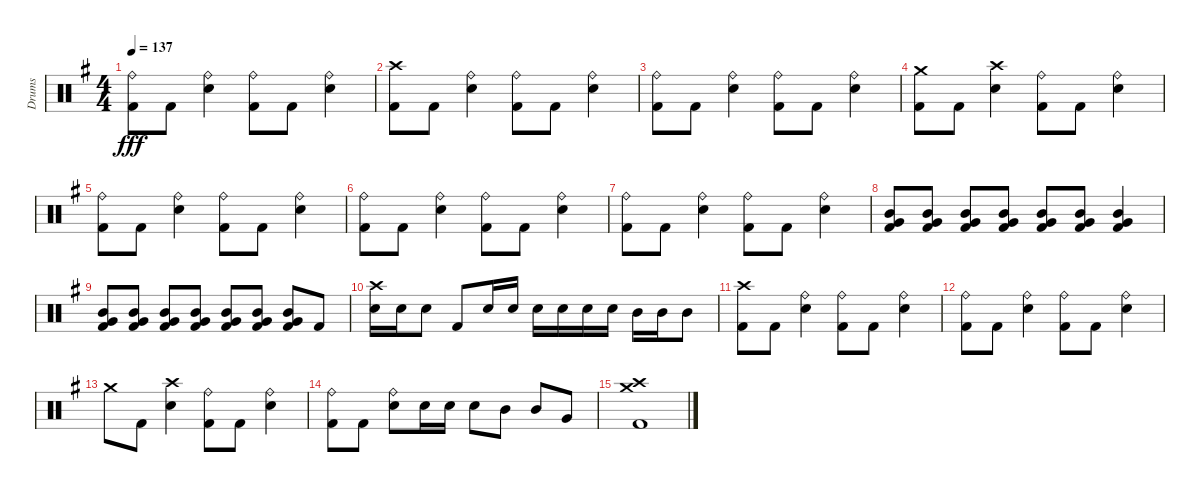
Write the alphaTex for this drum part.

\track ("Drums" "Drums") {instrument percussion}
\staff {score}
\articulation defaults
\ts (4 4)
\tempo 137
\clef neutral
\ks g
("Ride (bell)" "Kick (hit) 2").8{dy fff} "Kick (hit) 2".8 ("Ride (bell)" "Electric Snare (hit)").4 ("Ride (bell)" "Kick (hit) 2").8 "Kick (hit) 2".8 ("Ride (bell)" "Electric Snare (hit)").4 |
("Crash high (hit)" "Kick (hit) 2").8 "Kick (hit) 2".8 ("Ride (bell)" "Electric Snare (hit)").4 ("Ride (bell)" "Kick (hit) 2").8 "Kick (hit) 2".8 ("Ride (bell)" "Electric Snare (hit)").4 |
("Ride (bell)" "Kick (hit) 2").8 "Kick (hit) 2".8 ("Ride (bell)" "Electric Snare (hit)").4 ("Ride (bell)" "Kick (hit) 2").8 "Kick (hit) 2".8 ("Ride (bell)" "Electric Snare (hit)").4 |
("Crash medium (hit)" "Kick (hit) 2").8 "Kick (hit) 2".8 ("Crash high (hit)" "Electric Snare (hit)").4 ("Ride (bell)" "Kick (hit) 2").8 "Kick (hit) 2".8 ("Ride (bell)" "Electric Snare (hit)").4 |
("Ride (bell)" "Kick (hit) 2").8 "Kick (hit) 2".8 ("Ride (bell)" "Electric Snare (hit)").4 ("Ride (bell)" "Kick (hit) 2").8 "Kick (hit) 2".8 ("Ride (bell)" "Electric Snare (hit)").4 |
("Ride (bell)" "Kick (hit) 2").8 "Kick (hit) 2".8 ("Ride (bell)" "Electric Snare (hit)").4 ("Ride (bell)" "Kick (hit) 2").8 "Kick (hit) 2".8 ("Ride (bell)" "Electric Snare (hit)").4 |
("Ride (bell)" "Kick (hit) 2").8 "Kick (hit) 2".8 ("Ride (bell)" "Electric Snare (hit)").4 ("Ride (bell)" "Kick (hit) 2").8 "Kick (hit) 2".8 ("Ride (bell)" "Electric Snare (hit)").4 |
("Mid Tom (hit)" "Very Low Tom (hit)" "Kick (hit) 2").8 ("Mid Tom (hit)" "Very Low Tom (hit)" "Kick (hit) 2").8 ("Mid Tom (hit)" "Very Low Tom (hit)" "Kick (hit) 2").8 ("Mid Tom (hit)" "Very Low Tom (hit)" "Kick (hit) 2").8 ("Mid Tom (hit)" "Very Low Tom (hit)" "Kick (hit) 2").8 ("Mid Tom (hit)" "Very Low Tom (hit)" "Kick (hit) 2").8 ("Mid Tom (hit)" "Very Low Tom (hit)" "Kick (hit) 2").4 |
("Mid Tom (hit)" "Very Low Tom (hit)" "Kick (hit) 2").8 ("Mid Tom (hit)" "Very Low Tom (hit)" "Kick (hit) 2").8 ("Mid Tom (hit)" "Very Low Tom (hit)" "Kick (hit) 2").8 ("Mid Tom (hit)" "Very Low Tom (hit)" "Kick (hit) 2").8 ("Mid Tom (hit)" "Very Low Tom (hit)" "Kick (hit) 2").8 ("Mid Tom (hit)" "Very Low Tom (hit)" "Kick (hit) 2").8 ("Mid Tom (hit)" "Very Low Tom (hit)" "Kick (hit) 2").8 "Kick (hit) 2".8 |
("Crash high (hit)" "Electric Snare (hit)").16 "Electric Snare (hit)".16 "Electric Snare (hit)".8 "Kick (hit) 2".8 "Electric Snare (hit)".16 "Electric Snare (hit)".16 "Electric Snare (hit)".16 "Electric Snare (hit)".16 "Electric Snare (hit)".16 "Electric Snare (hit)".16 "Mid Tom (hit)".16 "Mid Tom (hit)".16 "Mid Tom (hit)".8 |
("Crash high (hit)" "Kick (hit) 2").8 "Kick (hit) 2".8 ("Ride (bell)" "Electric Snare (hit)").4 ("Ride (bell)" "Kick (hit) 2").8 "Kick (hit) 2".8 ("Ride (bell)" "Electric Snare (hit)").4 |
("Ride (bell)" "Kick (hit) 2").8 "Kick (hit) 2".8 ("Ride (bell)" "Electric Snare (hit)").4 ("Ride (bell)" "Kick (hit) 2").8 "Kick (hit) 2".8 ("Ride (bell)" "Electric Snare (hit)").4 |
"Crash medium (hit)".8 "Kick (hit) 2".8 ("Crash high (hit)" "Electric Snare (hit)").4 ("Ride (bell)" "Kick (hit) 2").8 "Kick (hit) 2".8 ("Ride (bell)" "Electric Snare (hit)").4 |
("Ride (bell)" "Kick (hit) 2").8 "Kick (hit) 2".8 ("Ride (bell)" "Electric Snare (hit)").8 "Electric Snare (hit)".16 "Electric Snare (hit)".16 "Electric Snare (hit)".8 "Mid Tom (hit)".8 "Mid Tom (hit)".8 "Very Low Tom (hit)".8 |
("Crash high (hit)" "Crash medium (hit)" "Kick (hit) 2").1
